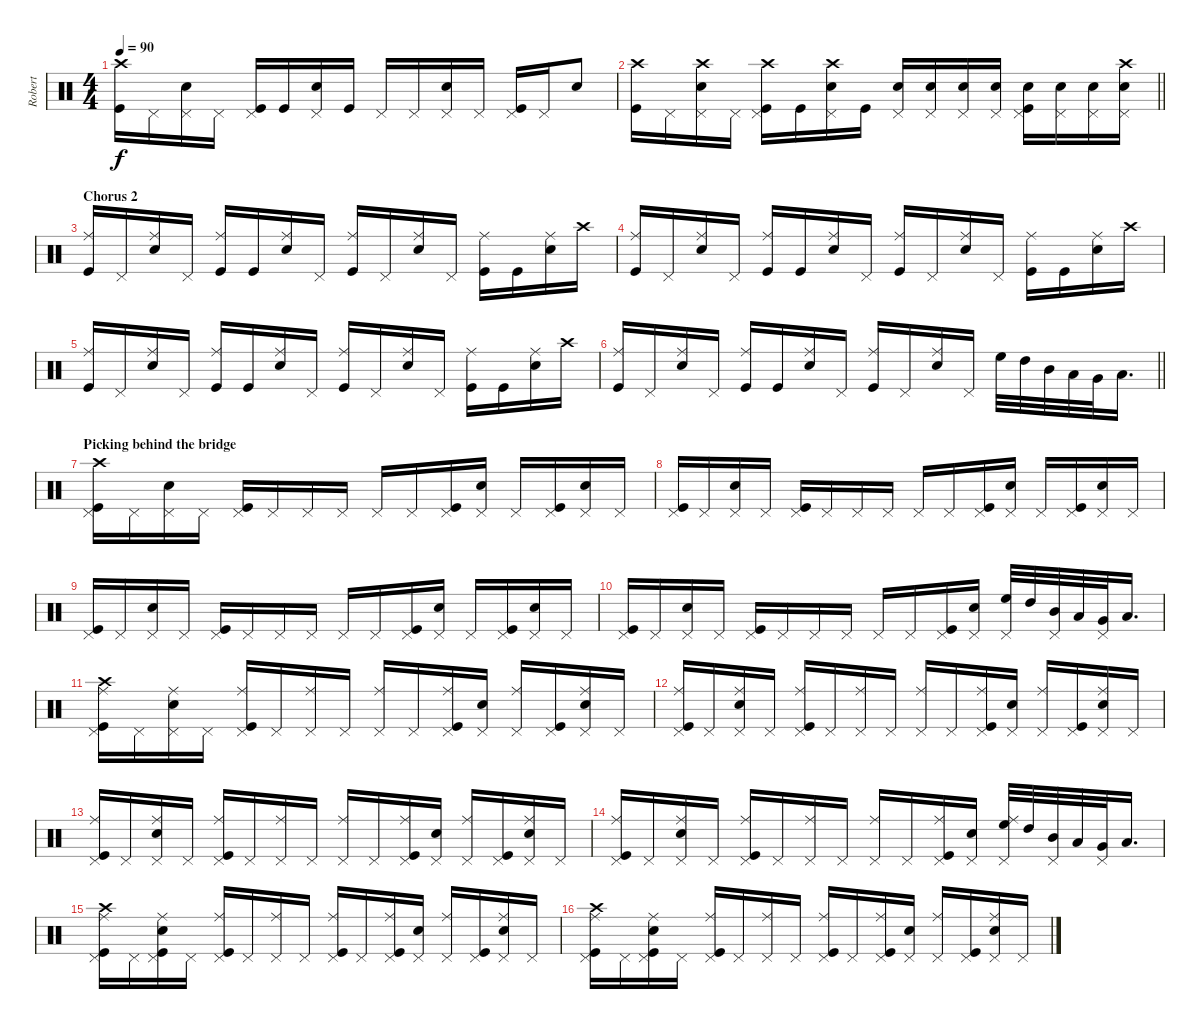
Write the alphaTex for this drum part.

\track ("Robert" "Robert") {instrument percussion}
\staff {score}
\articulation defaults
\ts (4 4)
\tempo 90
\clef neutral
\ks c
("Crash high (hit)" "Kick (hit)").16{dy f} "Pedal Hi-Hat (hit)".16 ("Pedal Hi-Hat (hit)" "Snare (hit) 2").16 "Pedal Hi-Hat (hit)".16 ("Pedal Hi-Hat (hit)" "Kick (hit)").16 "Kick (hit)".16 ("Pedal Hi-Hat (hit)" "Snare (hit) 2").16 "Kick (hit)".16 "Pedal Hi-Hat (hit)".16 "Pedal Hi-Hat (hit)".16 ("Pedal Hi-Hat (hit)" "Snare (hit) 2").16 "Pedal Hi-Hat (hit)".16 ("Pedal Hi-Hat (hit)" "Kick (hit)").16 "Pedal Hi-Hat (hit)".16 "Snare (hit) 2".8 |
\barLineRight lightlight
("Crash high (hit)" "Kick (hit)").16 "Pedal Hi-Hat (hit)".16 ("Pedal Hi-Hat (hit)" "Crash high (hit)" "Snare (hit) 2").16 "Pedal Hi-Hat (hit)".16 ("Pedal Hi-Hat (hit)" "Kick (hit)" "Crash high (hit)").16 "Kick (hit)".16 ("Pedal Hi-Hat (hit)" "Crash high (hit)" "Snare (hit) 2").16 "Kick (hit)".16 ("Pedal Hi-Hat (hit)" "Snare (hit) 2").16 ("Snare (hit) 2" "Pedal Hi-Hat (hit)").16 ("Pedal Hi-Hat (hit)" "Snare (hit) 2").16 ("Snare (hit) 2" "Pedal Hi-Hat (hit)").16 ("Pedal Hi-Hat (hit)" "Snare (hit) 2" "Kick (hit)").16 ("Snare (hit) 2" "Pedal Hi-Hat (hit)").16 ("Pedal Hi-Hat (hit)" "Snare (hit) 2").16 ("Snare (hit) 2" "Crash high (hit)" "Pedal Hi-Hat (hit)").16 |
\section ("" "Chorus 2")
("Ride (middle)" "Kick (hit)").16 "Pedal Hi-Hat (hit)".16 ("Ride (middle)" "Snare (hit) 2").16 "Pedal Hi-Hat (hit)".16 ("Ride (middle)" "Kick (hit)").16 "Kick (hit)".16 ("Ride (middle)" "Snare (hit) 2").16 "Pedal Hi-Hat (hit)".16 ("Ride (middle)" "Kick (hit)").16 "Pedal Hi-Hat (hit)".16 ("Ride (middle)" "Snare (hit) 2").16 "Pedal Hi-Hat (hit)".16 ("Ride (middle)" "Kick (hit)").16 "Kick (hit)".16 ("Ride (middle)" "Snare (hit) 2").16 "Crash high (hit)".16 |
("Ride (middle)" "Kick (hit)").16 "Pedal Hi-Hat (hit)".16 ("Ride (middle)" "Snare (hit) 2").16 "Pedal Hi-Hat (hit)".16 ("Ride (middle)" "Kick (hit)").16 "Kick (hit)".16 ("Ride (middle)" "Snare (hit) 2").16 "Pedal Hi-Hat (hit)".16 ("Ride (middle)" "Kick (hit)").16 "Pedal Hi-Hat (hit)".16 ("Ride (middle)" "Snare (hit) 2").16 "Pedal Hi-Hat (hit)".16 ("Ride (middle)" "Kick (hit)").16 "Kick (hit)".16 ("Ride (middle)" "Snare (hit) 2").16 "Crash high (hit)".16 |
("Ride (middle)" "Kick (hit)").16 "Pedal Hi-Hat (hit)".16 ("Ride (middle)" "Snare (hit) 2").16 "Pedal Hi-Hat (hit)".16 ("Ride (middle)" "Kick (hit)").16 "Kick (hit)".16 ("Ride (middle)" "Snare (hit) 2").16 "Pedal Hi-Hat (hit)".16 ("Ride (middle)" "Kick (hit)").16 "Pedal Hi-Hat (hit)".16 ("Ride (middle)" "Snare (hit) 2").16 "Pedal Hi-Hat (hit)".16 ("Ride (middle)" "Kick (hit)").16 "Kick (hit)".16 ("Ride (middle)" "Snare (hit) 2").16 "Crash high (hit)".16 |
\barLineRight lightlight
("Ride (middle)" "Kick (hit)").16 "Pedal Hi-Hat (hit)".16 ("Ride (middle)" "Snare (hit) 2").16 "Pedal Hi-Hat (hit)".16 ("Ride (middle)" "Kick (hit)").16 "Kick (hit)".16 ("Ride (middle)" "Snare (hit) 2").16 "Pedal Hi-Hat (hit)".16 ("Ride (middle)" "Kick (hit)").16 "Pedal Hi-Hat (hit)".16 ("Ride (middle)" "Snare (hit) 2").16 "Pedal Hi-Hat (hit)".16 "High Floor Tom (hit)".32 "High Tom (hit)".32 "Mid Tom (hit)".32 "Low Tom (hit)".32 "Very Low Tom (hit)".32 "Low Floor Tom (hit)".16{d} |
\section ("" "Picking behind the bridge")
("Kick (hit)" "Pedal Hi-Hat (hit)" "Crash high (hit)").16 "Pedal Hi-Hat (hit)".16 ("Snare (hit) 2" "Pedal Hi-Hat (hit)").16 "Pedal Hi-Hat (hit)".16 ("Kick (hit)" "Pedal Hi-Hat (hit)").16 "Pedal Hi-Hat (hit)".16 "Pedal Hi-Hat (hit)".16 "Pedal Hi-Hat (hit)".16 "Pedal Hi-Hat (hit)".16 "Pedal Hi-Hat (hit)".16 ("Kick (hit)" "Pedal Hi-Hat (hit)").16 ("Snare (hit) 2" "Pedal Hi-Hat (hit)").16 "Pedal Hi-Hat (hit)".16 ("Kick (hit)" "Pedal Hi-Hat (hit)").16 ("Pedal Hi-Hat (hit)" "Snare (hit) 2").16 "Pedal Hi-Hat (hit)".16 |
("Kick (hit)" "Pedal Hi-Hat (hit)").16 "Pedal Hi-Hat (hit)".16 ("Snare (hit) 2" "Pedal Hi-Hat (hit)").16 "Pedal Hi-Hat (hit)".16 ("Kick (hit)" "Pedal Hi-Hat (hit)").16 "Pedal Hi-Hat (hit)".16 "Pedal Hi-Hat (hit)".16 "Pedal Hi-Hat (hit)".16 "Pedal Hi-Hat (hit)".16 "Pedal Hi-Hat (hit)".16 ("Kick (hit)" "Pedal Hi-Hat (hit)").16 ("Snare (hit) 2" "Pedal Hi-Hat (hit)").16 "Pedal Hi-Hat (hit)".16 ("Kick (hit)" "Pedal Hi-Hat (hit)").16 ("Pedal Hi-Hat (hit)" "Snare (hit) 2").16 "Pedal Hi-Hat (hit)".16 |
("Kick (hit)" "Pedal Hi-Hat (hit)").16 "Pedal Hi-Hat (hit)".16 ("Snare (hit) 2" "Pedal Hi-Hat (hit)").16 "Pedal Hi-Hat (hit)".16 ("Kick (hit)" "Pedal Hi-Hat (hit)").16 "Pedal Hi-Hat (hit)".16 "Pedal Hi-Hat (hit)".16 "Pedal Hi-Hat (hit)".16 "Pedal Hi-Hat (hit)".16 "Pedal Hi-Hat (hit)".16 ("Kick (hit)" "Pedal Hi-Hat (hit)").16 ("Snare (hit) 2" "Pedal Hi-Hat (hit)").16 "Pedal Hi-Hat (hit)".16 ("Kick (hit)" "Pedal Hi-Hat (hit)").16 ("Pedal Hi-Hat (hit)" "Snare (hit) 2").16 "Pedal Hi-Hat (hit)".16 |
("Kick (hit)" "Pedal Hi-Hat (hit)").16 "Pedal Hi-Hat (hit)".16 ("Snare (hit) 2" "Pedal Hi-Hat (hit)").16 "Pedal Hi-Hat (hit)".16 ("Kick (hit)" "Pedal Hi-Hat (hit)").16 "Pedal Hi-Hat (hit)".16 "Pedal Hi-Hat (hit)".16 "Pedal Hi-Hat (hit)".16 "Pedal Hi-Hat (hit)".16 "Pedal Hi-Hat (hit)".16 ("Kick (hit)" "Pedal Hi-Hat (hit)").16 ("Snare (hit) 2" "Pedal Hi-Hat (hit)").16 ("High Floor Tom (hit)" "Pedal Hi-Hat (hit)").32 "High Tom (hit)".32 ("Mid Tom (hit)" "Pedal Hi-Hat (hit)").32 "Low Tom (hit)".32 ("Very Low Tom (hit)" "Pedal Hi-Hat (hit)").32 "Low Floor Tom (hit)".16{d} |
("Kick (hit)" "Ride (middle)" "Pedal Hi-Hat (hit)" "Crash high (hit)").16 "Pedal Hi-Hat (hit)".16 ("Ride (middle)" "Snare (hit) 2" "Pedal Hi-Hat (hit)").16 "Pedal Hi-Hat (hit)".16 ("Kick (hit)" "Ride (middle)" "Pedal Hi-Hat (hit)").16 "Pedal Hi-Hat (hit)".16 ("Ride (middle)" "Pedal Hi-Hat (hit)").16 "Pedal Hi-Hat (hit)".16 ("Ride (middle)" "Pedal Hi-Hat (hit)").16 "Pedal Hi-Hat (hit)".16 ("Kick (hit)" "Ride (middle)" "Pedal Hi-Hat (hit)").16 ("Snare (hit) 2" "Pedal Hi-Hat (hit)").16 ("Pedal Hi-Hat (hit)" "Ride (middle)").16 ("Kick (hit)" "Pedal Hi-Hat (hit)").16 ("Pedal Hi-Hat (hit)" "Snare (hit) 2" "Ride (middle)").16 "Pedal Hi-Hat (hit)".16 |
("Kick (hit)" "Ride (middle)" "Pedal Hi-Hat (hit)").16 "Pedal Hi-Hat (hit)".16 ("Ride (middle)" "Snare (hit) 2" "Pedal Hi-Hat (hit)").16 "Pedal Hi-Hat (hit)".16 ("Kick (hit)" "Ride (middle)" "Pedal Hi-Hat (hit)").16 "Pedal Hi-Hat (hit)".16 ("Ride (middle)" "Pedal Hi-Hat (hit)").16 "Pedal Hi-Hat (hit)".16 ("Ride (middle)" "Pedal Hi-Hat (hit)").16 "Pedal Hi-Hat (hit)".16 ("Kick (hit)" "Ride (middle)" "Pedal Hi-Hat (hit)").16 ("Snare (hit) 2" "Pedal Hi-Hat (hit)").16 ("Pedal Hi-Hat (hit)" "Ride (middle)").16 ("Kick (hit)" "Pedal Hi-Hat (hit)").16 ("Pedal Hi-Hat (hit)" "Snare (hit) 2" "Ride (middle)").16 "Pedal Hi-Hat (hit)".16 |
("Kick (hit)" "Ride (middle)" "Pedal Hi-Hat (hit)").16 "Pedal Hi-Hat (hit)".16 ("Ride (middle)" "Snare (hit) 2" "Pedal Hi-Hat (hit)").16 "Pedal Hi-Hat (hit)".16 ("Kick (hit)" "Ride (middle)" "Pedal Hi-Hat (hit)").16 "Pedal Hi-Hat (hit)".16 ("Ride (middle)" "Pedal Hi-Hat (hit)").16 "Pedal Hi-Hat (hit)".16 ("Ride (middle)" "Pedal Hi-Hat (hit)").16 "Pedal Hi-Hat (hit)".16 ("Kick (hit)" "Ride (middle)" "Pedal Hi-Hat (hit)").16 ("Snare (hit) 2" "Pedal Hi-Hat (hit)").16 ("Pedal Hi-Hat (hit)" "Ride (middle)").16 ("Kick (hit)" "Pedal Hi-Hat (hit)").16 ("Pedal Hi-Hat (hit)" "Snare (hit) 2" "Ride (middle)").16 "Pedal Hi-Hat (hit)".16 |
("Kick (hit)" "Ride (middle)" "Pedal Hi-Hat (hit)").16 "Pedal Hi-Hat (hit)".16 ("Ride (middle)" "Snare (hit) 2" "Pedal Hi-Hat (hit)").16 "Pedal Hi-Hat (hit)".16 ("Kick (hit)" "Ride (middle)" "Pedal Hi-Hat (hit)").16 "Pedal Hi-Hat (hit)".16 ("Ride (middle)" "Pedal Hi-Hat (hit)").16 "Pedal Hi-Hat (hit)".16 ("Ride (middle)" "Pedal Hi-Hat (hit)").16 "Pedal Hi-Hat (hit)".16 ("Kick (hit)" "Ride (middle)" "Pedal Hi-Hat (hit)").16 ("Snare (hit) 2" "Pedal Hi-Hat (hit)").16 ("High Floor Tom (hit)" "Pedal Hi-Hat (hit)" "Ride (middle)").32 "High Tom (hit)".32 ("Mid Tom (hit)" "Pedal Hi-Hat (hit)").32 "Low Tom (hit)".32 ("Very Low Tom (hit)" "Pedal Hi-Hat (hit)").32 "Low Floor Tom (hit)".16{d} |
("Kick (hit)" "Ride (middle)" "Pedal Hi-Hat (hit)" "Crash high (hit)").16 "Pedal Hi-Hat (hit)".16 ("Ride (middle)" "Snare (hit) 2" "Pedal Hi-Hat (hit)" "Kick (hit)").16 "Pedal Hi-Hat (hit)".16 ("Kick (hit)" "Ride (middle)" "Pedal Hi-Hat (hit)").16 "Pedal Hi-Hat (hit)".16 ("Ride (middle)" "Pedal Hi-Hat (hit)").16 "Pedal Hi-Hat (hit)".16 ("Ride (middle)" "Pedal Hi-Hat (hit)" "Kick (hit)").16 "Pedal Hi-Hat (hit)".16 ("Kick (hit)" "Ride (middle)" "Pedal Hi-Hat (hit)").16 ("Snare (hit) 2" "Pedal Hi-Hat (hit)").16 ("Pedal Hi-Hat (hit)" "Ride (middle)").16 ("Kick (hit)" "Pedal Hi-Hat (hit)").16 ("Pedal Hi-Hat (hit)" "Snare (hit) 2" "Ride (middle)").16 "Pedal Hi-Hat (hit)".16 |
("Kick (hit)" "Ride (middle)" "Pedal Hi-Hat (hit)" "Crash high (hit)").16 "Pedal Hi-Hat (hit)".16 ("Ride (middle)" "Snare (hit) 2" "Pedal Hi-Hat (hit)" "Kick (hit)").16 "Pedal Hi-Hat (hit)".16 ("Kick (hit)" "Ride (middle)" "Pedal Hi-Hat (hit)").16 "Pedal Hi-Hat (hit)".16 ("Ride (middle)" "Pedal Hi-Hat (hit)").16 "Pedal Hi-Hat (hit)".16 ("Ride (middle)" "Pedal Hi-Hat (hit)" "Kick (hit)").16 "Pedal Hi-Hat (hit)".16 ("Kick (hit)" "Ride (middle)" "Pedal Hi-Hat (hit)").16 ("Snare (hit) 2" "Pedal Hi-Hat (hit)").16 ("Pedal Hi-Hat (hit)" "Ride (middle)").16 ("Kick (hit)" "Pedal Hi-Hat (hit)").16 ("Pedal Hi-Hat (hit)" "Snare (hit) 2" "Ride (middle)").16 "Pedal Hi-Hat (hit)".16
